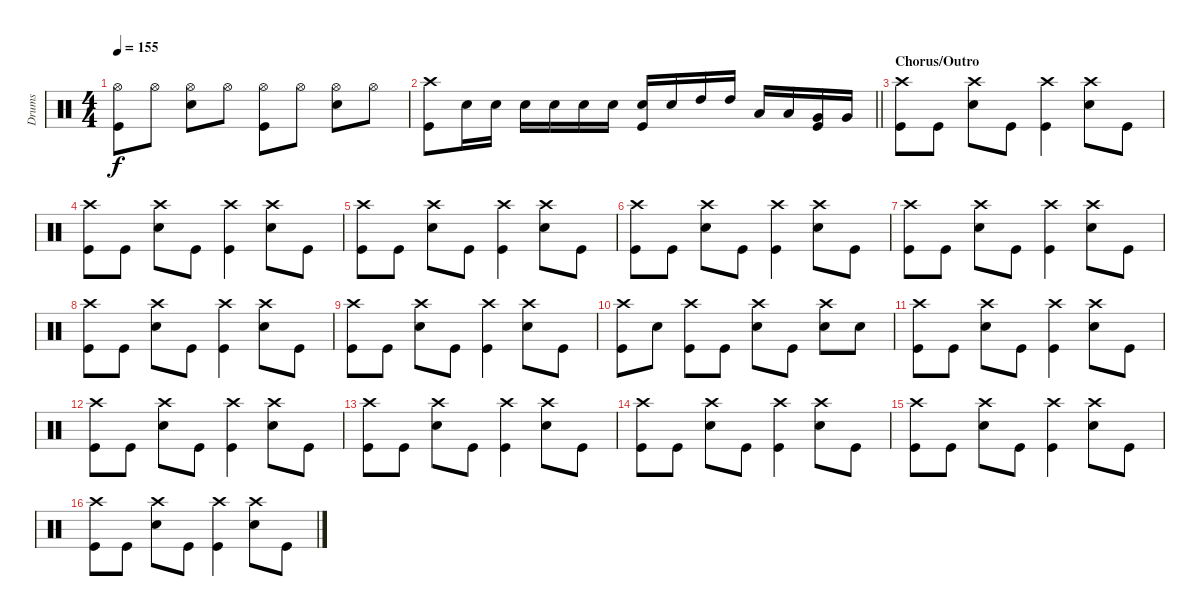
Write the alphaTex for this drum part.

\track ("Drums" "Drums") {instrument percussion}
\staff {score}
\articulation defaults
\ts (4 4)
\tempo 155
\clef neutral
\ks c
("Hi-Hat (open)" "Kick (hit)").8{dy f} "Hi-Hat (open)".8 ("Hi-Hat (open)" "Snare (hit) 2").8 "Hi-Hat (open)".8 ("Hi-Hat (open)" "Kick (hit)").8 "Hi-Hat (open)".8 ("Hi-Hat (open)" "Snare (hit) 2").8 "Hi-Hat (open)".8 |
\barLineRight lightlight
("Crash high (hit)" "Kick (hit)").8 "Snare (hit) 2".16 "Snare (hit) 2".16 "Snare (hit) 2".16 "Snare (hit) 2".16 "Snare (hit) 2".16 "Snare (hit) 2".16 ("Snare (hit) 2" "Kick (hit)").16 "Snare (hit) 2".16 "High Tom (hit)".16 "High Tom (hit)".16 "Low Tom (hit)".16 "Low Tom (hit)".16 ("Very Low Tom (hit)" "Kick (hit)").16 "Very Low Tom (hit)".16 |
\section ("" "Chorus/Outro")
("Crash high (hit)" "Kick (hit)").8 "Kick (hit)".8 ("Crash high (hit)" "Snare (hit) 2").8 "Kick (hit)".8 ("Crash high (hit)" "Kick (hit)").4 ("Crash high (hit)" "Snare (hit) 2").8 "Kick (hit)".8 |
("Crash high (hit)" "Kick (hit)").8 "Kick (hit)".8 ("Crash high (hit)" "Snare (hit) 2").8 "Kick (hit)".8 ("Crash high (hit)" "Kick (hit)").4 ("Crash high (hit)" "Snare (hit) 2").8 "Kick (hit)".8 |
("Crash high (hit)" "Kick (hit)").8 "Kick (hit)".8 ("Crash high (hit)" "Snare (hit) 2").8 "Kick (hit)".8 ("Crash high (hit)" "Kick (hit)").4 ("Crash high (hit)" "Snare (hit) 2").8 "Kick (hit)".8 |
("Crash high (hit)" "Kick (hit)").8 "Kick (hit)".8 ("Crash high (hit)" "Snare (hit) 2").8 "Kick (hit)".8 ("Crash high (hit)" "Kick (hit)").4 ("Crash high (hit)" "Snare (hit) 2").8 "Kick (hit)".8 |
("Crash high (hit)" "Kick (hit)").8 "Kick (hit)".8 ("Crash high (hit)" "Snare (hit) 2").8 "Kick (hit)".8 ("Crash high (hit)" "Kick (hit)").4 ("Crash high (hit)" "Snare (hit) 2").8 "Kick (hit)".8 |
("Crash high (hit)" "Kick (hit)").8 "Kick (hit)".8 ("Crash high (hit)" "Snare (hit) 2").8 "Kick (hit)".8 ("Crash high (hit)" "Kick (hit)").4 ("Crash high (hit)" "Snare (hit) 2").8 "Kick (hit)".8 |
("Crash high (hit)" "Kick (hit)").8 "Kick (hit)".8 ("Crash high (hit)" "Snare (hit) 2").8 "Kick (hit)".8 ("Crash high (hit)" "Kick (hit)").4 ("Crash high (hit)" "Snare (hit) 2").8 "Kick (hit)".8 |
("Crash high (hit)" "Kick (hit)").8 "Snare (hit) 2".8 ("Crash high (hit)" "Kick (hit)").8 "Kick (hit)".8 ("Crash high (hit)" "Snare (hit) 2").8 "Kick (hit)".8 ("Crash high (hit)" "Snare (hit) 2").8 "Snare (hit) 2".8 |
("Crash high (hit)" "Kick (hit)").8 "Kick (hit)".8 ("Crash high (hit)" "Snare (hit) 2").8 "Kick (hit)".8 ("Crash high (hit)" "Kick (hit)").4 ("Crash high (hit)" "Snare (hit) 2").8 "Kick (hit)".8 |
("Crash high (hit)" "Kick (hit)").8 "Kick (hit)".8 ("Crash high (hit)" "Snare (hit) 2").8 "Kick (hit)".8 ("Crash high (hit)" "Kick (hit)").4 ("Crash high (hit)" "Snare (hit) 2").8 "Kick (hit)".8 |
("Crash high (hit)" "Kick (hit)").8 "Kick (hit)".8 ("Crash high (hit)" "Snare (hit) 2").8 "Kick (hit)".8 ("Crash high (hit)" "Kick (hit)").4 ("Crash high (hit)" "Snare (hit) 2").8 "Kick (hit)".8 |
("Crash high (hit)" "Kick (hit)").8 "Kick (hit)".8 ("Crash high (hit)" "Snare (hit) 2").8 "Kick (hit)".8 ("Crash high (hit)" "Kick (hit)").4 ("Crash high (hit)" "Snare (hit) 2").8 "Kick (hit)".8 |
("Crash high (hit)" "Kick (hit)").8 "Kick (hit)".8 ("Crash high (hit)" "Snare (hit) 2").8 "Kick (hit)".8 ("Crash high (hit)" "Kick (hit)").4 ("Crash high (hit)" "Snare (hit) 2").8 "Kick (hit)".8 |
("Crash high (hit)" "Kick (hit)").8 "Kick (hit)".8 ("Crash high (hit)" "Snare (hit) 2").8 "Kick (hit)".8 ("Crash high (hit)" "Kick (hit)").4 ("Crash high (hit)" "Snare (hit) 2").8 "Kick (hit)".8
